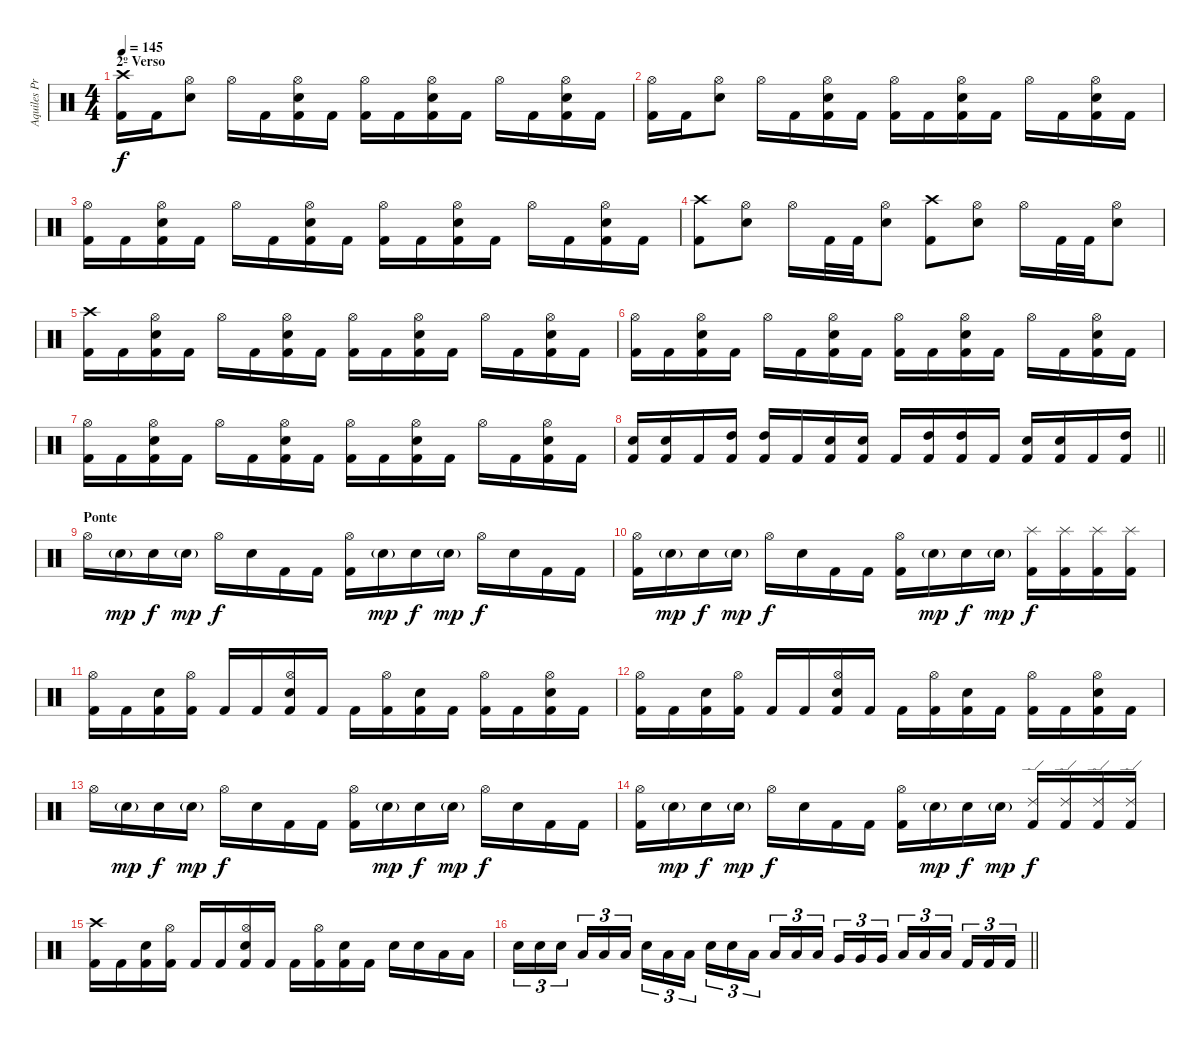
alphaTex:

\track ("Aquiles Priester" "Aquiles Pr") {instrument percussion}
\staff {score}
\articulation defaults
\ts (4 4)
\section ("" "2º Verso")
\tempo 145
\clef neutral
\ks c
("Crash high (hit)" "Kick (hit) 2").16{dy f} "Kick (hit) 2".16 ("Hi-Hat (open)" "Electric Snare (hit)").8 "Hi-Hat (open)".16 "Kick (hit) 2".16 ("Hi-Hat (open)" "Electric Snare (hit)" "Kick (hit) 2").16 "Kick (hit) 2".16 ("Hi-Hat (open)" "Kick (hit) 2").16 "Kick (hit) 2".16 ("Hi-Hat (open)" "Electric Snare (hit)" "Kick (hit) 2").16 "Kick (hit) 2".16 "Hi-Hat (open)".16 "Kick (hit) 2".16 ("Hi-Hat (open)" "Electric Snare (hit)" "Kick (hit) 2").16 "Kick (hit) 2".16 |
("Hi-Hat (open)" "Kick (hit) 2").16 "Kick (hit) 2".16 ("Hi-Hat (open)" "Electric Snare (hit)").8 "Hi-Hat (open)".16 "Kick (hit) 2".16 ("Hi-Hat (open)" "Electric Snare (hit)" "Kick (hit) 2").16 "Kick (hit) 2".16 ("Hi-Hat (open)" "Kick (hit) 2").16 "Kick (hit) 2".16 ("Hi-Hat (open)" "Electric Snare (hit)" "Kick (hit) 2").16 "Kick (hit) 2".16 "Hi-Hat (open)".16 "Kick (hit) 2".16 ("Hi-Hat (open)" "Electric Snare (hit)" "Kick (hit) 2").16 "Kick (hit) 2".16 |
("Hi-Hat (open)" "Kick (hit) 2").16 "Kick (hit) 2".16 ("Hi-Hat (open)" "Electric Snare (hit)" "Kick (hit) 2").16 "Kick (hit) 2".16 "Hi-Hat (open)".16 "Kick (hit) 2".16 ("Hi-Hat (open)" "Electric Snare (hit)" "Kick (hit) 2").16 "Kick (hit) 2".16 ("Hi-Hat (open)" "Kick (hit) 2").16 "Kick (hit) 2".16 ("Hi-Hat (open)" "Electric Snare (hit)" "Kick (hit) 2").16 "Kick (hit) 2".16 "Hi-Hat (open)".16 "Kick (hit) 2".16 ("Hi-Hat (open)" "Electric Snare (hit)" "Kick (hit) 2").16 "Kick (hit) 2".16 |
("Crash high (hit)" "Kick (hit) 2").8 ("Hi-Hat (open)" "Electric Snare (hit)").8 "Hi-Hat (open)".16 "Kick (hit) 2".32 "Kick (hit) 2".32 ("Hi-Hat (open)" "Electric Snare (hit)").8 ("Crash high (hit)" "Kick (hit) 2").8 ("Hi-Hat (open)" "Electric Snare (hit)").8 "Hi-Hat (open)".16 "Kick (hit) 2".32 "Kick (hit) 2".32 ("Hi-Hat (open)" "Electric Snare (hit)").8 |
("Crash high (hit)" "Kick (hit) 2").16 "Kick (hit) 2".16 ("Hi-Hat (open)" "Electric Snare (hit)" "Kick (hit) 2").16 "Kick (hit) 2".16 "Hi-Hat (open)".16 "Kick (hit) 2".16 ("Hi-Hat (open)" "Electric Snare (hit)" "Kick (hit) 2").16 "Kick (hit) 2".16 ("Hi-Hat (open)" "Kick (hit) 2").16 "Kick (hit) 2".16 ("Hi-Hat (open)" "Electric Snare (hit)" "Kick (hit) 2").16 "Kick (hit) 2".16 "Hi-Hat (open)".16 "Kick (hit) 2".16 ("Hi-Hat (open)" "Electric Snare (hit)" "Kick (hit) 2").16 "Kick (hit) 2".16 |
("Hi-Hat (open)" "Kick (hit) 2").16 "Kick (hit) 2".16 ("Hi-Hat (open)" "Electric Snare (hit)" "Kick (hit) 2").16 "Kick (hit) 2".16 "Hi-Hat (open)".16 "Kick (hit) 2".16 ("Hi-Hat (open)" "Electric Snare (hit)" "Kick (hit) 2").16 "Kick (hit) 2".16 ("Hi-Hat (open)" "Kick (hit) 2").16 "Kick (hit) 2".16 ("Hi-Hat (open)" "Electric Snare (hit)" "Kick (hit) 2").16 "Kick (hit) 2".16 "Hi-Hat (open)".16 "Kick (hit) 2".16 ("Hi-Hat (open)" "Electric Snare (hit)" "Kick (hit) 2").16 "Kick (hit) 2".16 |
("Hi-Hat (open)" "Kick (hit) 2").16 "Kick (hit) 2".16 ("Hi-Hat (open)" "Electric Snare (hit)" "Kick (hit) 2").16 "Kick (hit) 2".16 "Hi-Hat (open)".16 "Kick (hit) 2".16 ("Hi-Hat (open)" "Electric Snare (hit)" "Kick (hit) 2").16 "Kick (hit) 2".16 ("Hi-Hat (open)" "Kick (hit) 2").16 "Kick (hit) 2".16 ("Hi-Hat (open)" "Electric Snare (hit)" "Kick (hit) 2").16 "Kick (hit) 2".16 "Hi-Hat (open)".16 "Kick (hit) 2".16 ("Hi-Hat (open)" "Electric Snare (hit)" "Kick (hit) 2").16 "Kick (hit) 2".16 |
\barLineRight lightlight
("Electric Snare (hit)" "Kick (hit) 2").16 ("Electric Snare (hit)" "Kick (hit) 2").16 "Kick (hit) 2".16 ("High Tom (hit)" "Kick (hit) 2").16 ("High Tom (hit)" "Kick (hit) 2").16 "Kick (hit) 2".16 ("Electric Snare (hit)" "Kick (hit) 2").16 ("Electric Snare (hit)" "Kick (hit) 2").16 "Kick (hit) 2".16 ("High Tom (hit)" "Kick (hit) 2").16 ("High Tom (hit)" "Kick (hit) 2").16 "Kick (hit) 2".16 ("Electric Snare (hit)" "Kick (hit) 2").16 ("Electric Snare (hit)" "Kick (hit) 2").16 "Kick (hit) 2".16 ("High Tom (hit)" "Kick (hit) 2").16 |
\section ("" "Ponte")
"Hi-Hat (open)".16 "Electric Snare (hit)"{g}.16{dy mp} "Electric Snare (hit)".16{dy f} "Electric Snare (hit)"{g}.16{dy mp} "Hi-Hat (open)".16{dy f} "Electric Snare (hit)".16 "Kick (hit) 2".16 "Kick (hit) 2".16 ("Hi-Hat (open)" "Kick (hit) 2").16 "Electric Snare (hit)"{g}.16{dy mp} "Electric Snare (hit)".16{dy f} "Electric Snare (hit)"{g}.16{dy mp} "Hi-Hat (open)".16{dy f} "Electric Snare (hit)".16 "Kick (hit) 2".16 "Kick (hit) 2".16 |
("Hi-Hat (open)" "Kick (hit) 2").16 "Electric Snare (hit)"{g}.16{dy mp} "Electric Snare (hit)".16{dy f} "Electric Snare (hit)"{g}.16{dy mp} "Hi-Hat (open)".16{dy f} "Electric Snare (hit)".16 "Kick (hit) 2".16 "Kick (hit) 2".16 ("Hi-Hat (open)" "Kick (hit) 2").16 "Electric Snare (hit)"{g}.16{dy mp} "Electric Snare (hit)".16{dy f} "Electric Snare (hit)"{g}.16{dy mp} ("Splash (hit)" "Kick (hit) 2").16{dy f} ("Splash (hit)" "Kick (hit) 2").16 ("Splash (hit)" "Kick (hit) 2").16 ("Splash (hit)" "Kick (hit) 2").16 |
("Hi-Hat (open)" "Kick (hit) 2").16 "Kick (hit) 2".16 ("Electric Snare (hit)" "Kick (hit) 2").16 ("Hi-Hat (open)" "Kick (hit) 2").16 "Kick (hit) 2".16 "Kick (hit) 2".16 ("Hi-Hat (open)" "Electric Snare (hit)" "Kick (hit) 2").16 "Kick (hit) 2".16 "Kick (hit) 2".16 ("Hi-Hat (open)" "Kick (hit) 2").16 ("Electric Snare (hit)" "Kick (hit) 2").16 "Kick (hit) 2".16 ("Hi-Hat (open)" "Kick (hit) 2").16 "Kick (hit) 2".16 ("Hi-Hat (open)" "Electric Snare (hit)" "Kick (hit) 2").16 "Kick (hit) 2".16 |
("Hi-Hat (open)" "Kick (hit) 2").16 "Kick (hit) 2".16 ("Electric Snare (hit)" "Kick (hit) 2").16 ("Hi-Hat (open)" "Kick (hit) 2").16 "Kick (hit) 2".16 "Kick (hit) 2".16 ("Hi-Hat (open)" "Electric Snare (hit)" "Kick (hit) 2").16 "Kick (hit) 2".16 "Kick (hit) 2".16 ("Hi-Hat (open)" "Kick (hit) 2").16 ("Electric Snare (hit)" "Kick (hit) 2").16 "Kick (hit) 2".16 ("Hi-Hat (open)" "Kick (hit) 2").16 "Kick (hit) 2".16 ("Hi-Hat (open)" "Electric Snare (hit)" "Kick (hit) 2").16 "Kick (hit) 2".16 |
"Hi-Hat (open)".16 "Electric Snare (hit)"{g}.16{dy mp} "Electric Snare (hit)".16{dy f} "Electric Snare (hit)"{g}.16{dy mp} "Hi-Hat (open)".16{dy f} "Electric Snare (hit)".16 "Kick (hit) 2".16 "Kick (hit) 2".16 ("Hi-Hat (open)" "Kick (hit) 2").16 "Electric Snare (hit)"{g}.16{dy mp} "Electric Snare (hit)".16{dy f} "Electric Snare (hit)"{g}.16{dy mp} "Hi-Hat (open)".16{dy f} "Electric Snare (hit)".16 "Kick (hit) 2".16 "Kick (hit) 2".16 |
("Hi-Hat (open)" "Kick (hit) 2").16 "Electric Snare (hit)"{g}.16{dy mp} "Electric Snare (hit)".16{dy f} "Electric Snare (hit)"{g}.16{dy mp} "Hi-Hat (open)".16{dy f} "Electric Snare (hit)".16 "Kick (hit) 2".16 "Kick (hit) 2".16 ("Hi-Hat (open)" "Kick (hit) 2").16 "Electric Snare (hit)"{g}.16{dy mp} "Electric Snare (hit)".16{dy f} "Electric Snare (hit)"{g}.16{dy mp} ("Ride (edge) 2" "Kick (hit) 2").16{dy f} ("Ride (edge) 2" "Kick (hit) 2").16 ("Ride (edge) 2" "Kick (hit) 2").16 ("Ride (edge) 2" "Kick (hit) 2").16 |
("Crash high (hit)" "Kick (hit) 2").16 "Kick (hit) 2".16 ("Electric Snare (hit)" "Kick (hit) 2").16 ("Hi-Hat (open)" "Kick (hit) 2").16 "Kick (hit) 2".16 "Kick (hit) 2".16 ("Hi-Hat (open)" "Electric Snare (hit)" "Kick (hit) 2").16 "Kick (hit) 2".16 "Kick (hit) 2".16 ("Hi-Hat (open)" "Kick (hit) 2").16 ("Electric Snare (hit)" "Kick (hit) 2").16 "Kick (hit) 2".16 "Electric Snare (hit)".16 "Electric Snare (hit)".16 "Low Tom (hit)".16 "Low Tom (hit)".16 |
\barLineRight lightlight "Electric Snare (hit)".16{tu (3 2)} "Electric Snare (hit)".16{tu (3 2)} "Electric Snare (hit)".16{tu (3 2) beam splitsecondary} "Low Tom (hit)".16{tu (3 2)} "Low Tom (hit)".16{tu (3 2)} "Low Tom (hit)".16{tu (3 2)} "Electric Snare (hit)".16{tu (3 2)} "Low Tom (hit)".16{tu (3 2)} "Low Tom (hit)".16{tu (3 2) beam splitsecondary} "Electric Snare (hit)".16{tu (3 2)} "Electric Snare (hit)".16{tu (3 2)} "Low Tom (hit)".16{tu (3 2)} "Low Tom (hit)".16{tu (3 2)} "Low Tom (hit)".16{tu (3 2)} "Low Tom (hit)".16{tu (3 2) beam splitsecondary} "Very Low Tom (hit)".16{tu (3 2)} "Very Low Tom (hit)".16{tu (3 2)} "Very Low Tom (hit)".16{tu (3 2)} "Low Floor Tom (hit)".16{tu (3 2)} "Low Floor Tom (hit)".16{tu (3 2)} "Low Floor Tom (hit)".16{tu (3 2) beam splitsecondary} "Kick (hit) 2".16{tu (3 2)} "Kick (hit) 2".16{tu (3 2)} "Kick (hit) 2".16{tu (3 2)}
